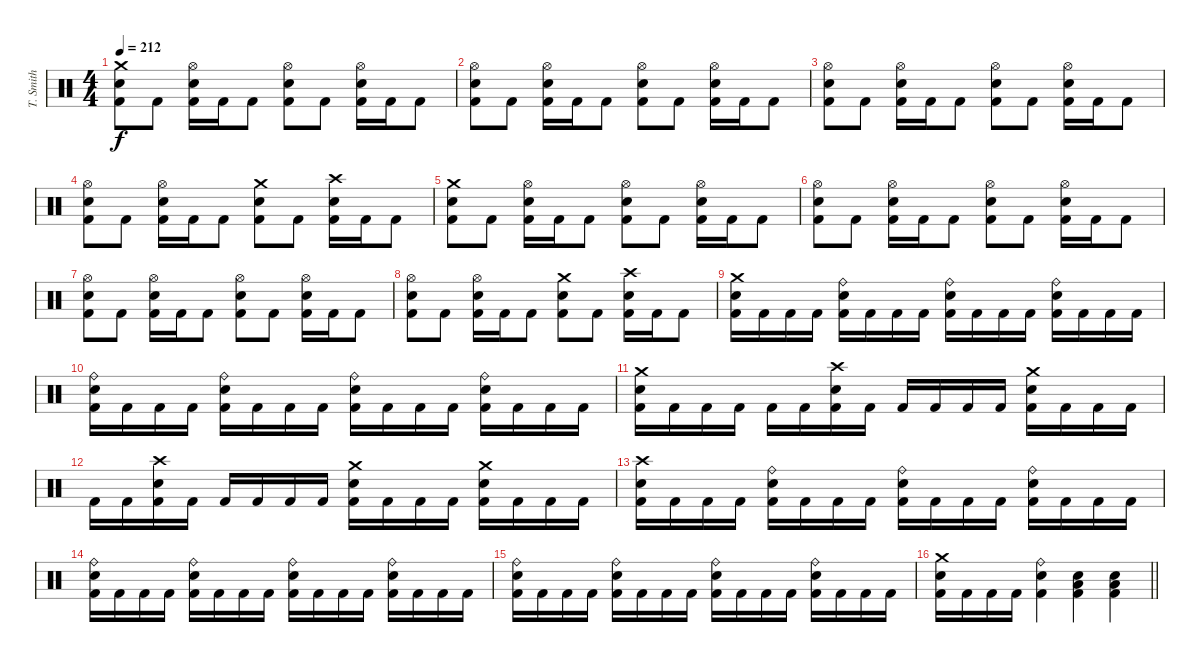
\track ("T. Smith" "T. Smith") {instrument percussion}
\staff {score}
\articulation defaults
\ts (4 4)
\tempo 212
\clef neutral
\ks c
("Crash medium (hit)" "Electric Snare (hit)" "Kick (hit) 2").8{dy f} "Kick (hit) 2".8 ("Hi-Hat (open)" "Electric Snare (hit)" "Kick (hit) 2").16 "Kick (hit) 2".16 "Kick (hit) 2".8 ("Hi-Hat (open)" "Electric Snare (hit)" "Kick (hit) 2").8 "Kick (hit) 2".8 ("Hi-Hat (open)" "Electric Snare (hit)" "Kick (hit) 2").16 "Kick (hit) 2".16 "Kick (hit) 2".8 |
("Hi-Hat (open)" "Electric Snare (hit)" "Kick (hit) 2").8 "Kick (hit) 2".8 ("Hi-Hat (open)" "Electric Snare (hit)" "Kick (hit) 2").16 "Kick (hit) 2".16 "Kick (hit) 2".8 ("Hi-Hat (open)" "Electric Snare (hit)" "Kick (hit) 2").8 "Kick (hit) 2".8 ("Hi-Hat (open)" "Electric Snare (hit)" "Kick (hit) 2").16 "Kick (hit) 2".16 "Kick (hit) 2".8 |
("Hi-Hat (open)" "Electric Snare (hit)" "Kick (hit) 2").8 "Kick (hit) 2".8 ("Hi-Hat (open)" "Electric Snare (hit)" "Kick (hit) 2").16 "Kick (hit) 2".16 "Kick (hit) 2".8 ("Hi-Hat (open)" "Electric Snare (hit)" "Kick (hit) 2").8 "Kick (hit) 2".8 ("Hi-Hat (open)" "Electric Snare (hit)" "Kick (hit) 2").16 "Kick (hit) 2".16 "Kick (hit) 2".8 |
("Hi-Hat (open)" "Electric Snare (hit)" "Kick (hit) 2").8 "Kick (hit) 2".8 ("Hi-Hat (open)" "Electric Snare (hit)" "Kick (hit) 2").16 "Kick (hit) 2".16 "Kick (hit) 2".8 ("Crash medium (hit)" "Electric Snare (hit)" "Kick (hit) 2").8 "Kick (hit) 2".8 ("Crash high (hit)" "Electric Snare (hit)" "Kick (hit) 2").16 "Kick (hit) 2".16 "Kick (hit) 2".8 |
("Crash medium (hit)" "Electric Snare (hit)" "Kick (hit) 2").8 "Kick (hit) 2".8 ("Hi-Hat (open)" "Electric Snare (hit)" "Kick (hit) 2").16 "Kick (hit) 2".16 "Kick (hit) 2".8 ("Hi-Hat (open)" "Electric Snare (hit)" "Kick (hit) 2").8 "Kick (hit) 2".8 ("Hi-Hat (open)" "Electric Snare (hit)" "Kick (hit) 2").16 "Kick (hit) 2".16 "Kick (hit) 2".8 |
("Hi-Hat (open)" "Electric Snare (hit)" "Kick (hit) 2").8 "Kick (hit) 2".8 ("Hi-Hat (open)" "Electric Snare (hit)" "Kick (hit) 2").16 "Kick (hit) 2".16 "Kick (hit) 2".8 ("Hi-Hat (open)" "Electric Snare (hit)" "Kick (hit) 2").8 "Kick (hit) 2".8 ("Hi-Hat (open)" "Electric Snare (hit)" "Kick (hit) 2").16 "Kick (hit) 2".16 "Kick (hit) 2".8 |
("Hi-Hat (open)" "Electric Snare (hit)" "Kick (hit) 2").8 "Kick (hit) 2".8 ("Hi-Hat (open)" "Electric Snare (hit)" "Kick (hit) 2").16 "Kick (hit) 2".16 "Kick (hit) 2".8 ("Hi-Hat (open)" "Electric Snare (hit)" "Kick (hit) 2").8 "Kick (hit) 2".8 ("Hi-Hat (open)" "Electric Snare (hit)" "Kick (hit) 2").16 "Kick (hit) 2".16 "Kick (hit) 2".8 |
("Hi-Hat (open)" "Electric Snare (hit)" "Kick (hit) 2").8 "Kick (hit) 2".8 ("Hi-Hat (open)" "Electric Snare (hit)" "Kick (hit) 2").16 "Kick (hit) 2".16 "Kick (hit) 2".8 ("Crash medium (hit)" "Electric Snare (hit)" "Kick (hit) 2").8 "Kick (hit) 2".8 ("Crash high (hit)" "Electric Snare (hit)" "Kick (hit) 2").16 "Kick (hit) 2".16 "Kick (hit) 2".8 |
("Crash medium (hit)" "Electric Snare (hit)" "Kick (hit) 2").16 "Kick (hit) 2".16 "Kick (hit) 2".16 "Kick (hit) 2".16 ("Ride (bell)" "Electric Snare (hit)" "Kick (hit) 2").16 "Kick (hit) 2".16 "Kick (hit) 2".16 "Kick (hit) 2".16 ("Ride (bell)" "Electric Snare (hit)" "Kick (hit) 2").16 "Kick (hit) 2".16 "Kick (hit) 2".16 "Kick (hit) 2".16 ("Ride (bell)" "Electric Snare (hit)" "Kick (hit) 2").16 "Kick (hit) 2".16 "Kick (hit) 2".16 "Kick (hit) 2".16 |
("Ride (bell)" "Electric Snare (hit)" "Kick (hit) 2").16 "Kick (hit) 2".16 "Kick (hit) 2".16 "Kick (hit) 2".16 ("Ride (bell)" "Electric Snare (hit)" "Kick (hit) 2").16 "Kick (hit) 2".16 "Kick (hit) 2".16 "Kick (hit) 2".16 ("Ride (bell)" "Electric Snare (hit)" "Kick (hit) 2").16 "Kick (hit) 2".16 "Kick (hit) 2".16 "Kick (hit) 2".16 ("Ride (bell)" "Electric Snare (hit)" "Kick (hit) 2").16 "Kick (hit) 2".16 "Kick (hit) 2".16 "Kick (hit) 2".16 |
("Crash medium (hit)" "Electric Snare (hit)" "Kick (hit) 2").16 "Kick (hit) 2".16 "Kick (hit) 2".16 "Kick (hit) 2".16 "Kick (hit) 2".16 "Kick (hit) 2".16 ("Crash high (hit)" "Electric Snare (hit)" "Kick (hit) 2").16 "Kick (hit) 2".16 "Kick (hit) 2".16 "Kick (hit) 2".16 "Kick (hit) 2".16 "Kick (hit) 2".16 ("Crash medium (hit)" "Electric Snare (hit)" "Kick (hit) 2").16 "Kick (hit) 2".16 "Kick (hit) 2".16 "Kick (hit) 2".16 |
"Kick (hit) 2".16 "Kick (hit) 2".16 ("Crash high (hit)" "Electric Snare (hit)" "Kick (hit) 2").16 "Kick (hit) 2".16 "Kick (hit) 2".16 "Kick (hit) 2".16 "Kick (hit) 2".16 "Kick (hit) 2".16 ("Crash medium (hit)" "Electric Snare (hit)" "Kick (hit) 2").16 "Kick (hit) 2".16 "Kick (hit) 2".16 "Kick (hit) 2".16 ("Crash medium (hit)" "Electric Snare (hit)" "Kick (hit) 2").16 "Kick (hit) 2".16 "Kick (hit) 2".16 "Kick (hit) 2".16 |
("Crash high (hit)" "Electric Snare (hit)" "Kick (hit) 2").16 "Kick (hit) 2".16 "Kick (hit) 2".16 "Kick (hit) 2".16 ("Ride (bell)" "Electric Snare (hit)" "Kick (hit) 2").16 "Kick (hit) 2".16 "Kick (hit) 2".16 "Kick (hit) 2".16 ("Ride (bell)" "Electric Snare (hit)" "Kick (hit) 2").16 "Kick (hit) 2".16 "Kick (hit) 2".16 "Kick (hit) 2".16 ("Ride (bell)" "Electric Snare (hit)" "Kick (hit) 2").16 "Kick (hit) 2".16 "Kick (hit) 2".16 "Kick (hit) 2".16 |
("Ride (bell)" "Electric Snare (hit)" "Kick (hit) 2").16 "Kick (hit) 2".16 "Kick (hit) 2".16 "Kick (hit) 2".16 ("Ride (bell)" "Electric Snare (hit)" "Kick (hit) 2").16 "Kick (hit) 2".16 "Kick (hit) 2".16 "Kick (hit) 2".16 ("Ride (bell)" "Electric Snare (hit)" "Kick (hit) 2").16 "Kick (hit) 2".16 "Kick (hit) 2".16 "Kick (hit) 2".16 ("Ride (bell)" "Electric Snare (hit)" "Kick (hit) 2").16 "Kick (hit) 2".16 "Kick (hit) 2".16 "Kick (hit) 2".16 |
("Ride (bell)" "Electric Snare (hit)" "Kick (hit) 2").16 "Kick (hit) 2".16 "Kick (hit) 2".16 "Kick (hit) 2".16 ("Ride (bell)" "Electric Snare (hit)" "Kick (hit) 2").16 "Kick (hit) 2".16 "Kick (hit) 2".16 "Kick (hit) 2".16 ("Ride (bell)" "Electric Snare (hit)" "Kick (hit) 2").16 "Kick (hit) 2".16 "Kick (hit) 2".16 "Kick (hit) 2".16 ("Ride (bell)" "Electric Snare (hit)" "Kick (hit) 2").16 "Kick (hit) 2".16 "Kick (hit) 2".16 "Kick (hit) 2".16 |
\barLineRight lightlight
("Crash medium (hit)" "Electric Snare (hit)" "Kick (hit) 2").16 "Kick (hit) 2".16 "Kick (hit) 2".16 "Kick (hit) 2".16 ("Ride (bell)" "Electric Snare (hit)" "Kick (hit) 2").4 ("Low Tom (hit)" "Electric Snare (hit)" "Kick (hit) 2").4 ("Low Tom (hit)" "Electric Snare (hit)" "Kick (hit) 2").4
